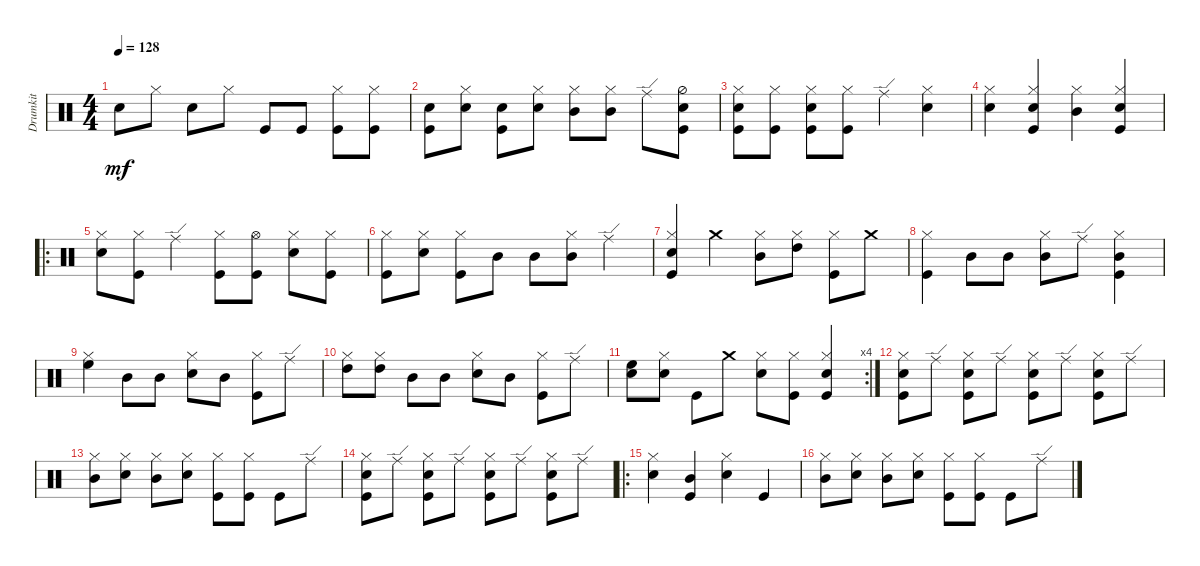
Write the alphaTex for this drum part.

\track ("Drumkit" "Drumkit") {instrument percussion}
\staff {score}
\articulation defaults
\ts (4 4)
\tempo 128
\clef neutral
\ks c "Snare (hit) 2".8{dy mf} "Hi-Hat (closed)".8 "Snare (hit) 2".8 "Hi-Hat (closed)".8 "Kick (hit)".8 "Kick (hit)".8
("Kick (hit)" "Hi-Hat (closed)").8 ("Kick (hit)" "Hi-Hat (closed)").8 |
("Snare (hit) 2" "Kick (hit)").8 ("Snare (hit) 2" "Hi-Hat (closed)").8 ("Kick (hit)" "Snare (hit) 2").8 ("Snare (hit) 2" "Hi-Hat (closed)").8 ("Mid Tom (hit)" "Hi-Hat (closed)").8 ("Mid Tom (hit)" "Hi-Hat (closed)").8 "Ride (edge)".8 ("Hi-Hat (half)" "Snare (hit) 2" "Kick (hit)").8 |
("Hi-Hat (closed)" "Kick (hit)" "Snare (hit) 2").8 ("Hi-Hat (closed)" "Kick (hit)").8 ("Hi-Hat (closed)" "Snare (hit) 2" "Kick (hit)").8 ("Hi-Hat (closed)" "Kick (hit)").8 "Ride (edge)".4 ("Snare (hit) 2" "Hi-Hat (closed)").4 |
("Hi-Hat (closed)" "Snare (hit) 2").4 ("Hi-Hat (closed)" "Snare (hit) 2" "Kick (hit)").4 ("Hi-Hat (closed)" "Mid Tom (hit)").4 ("Hi-Hat (closed)" "Snare (hit) 2" "Kick (hit)").4 |
\ro
("Snare (hit) 2" "Hi-Hat (closed)").8 ("Kick (hit)" "Hi-Hat (closed)").8 "Ride (edge)".4 ("Kick (hit)" "Hi-Hat (closed)").8 ("Kick (hit)" "Hi-Hat (open)").8 ("Snare (hit) 2" "Hi-Hat (closed)").8 ("Kick (hit)" "Hi-Hat (closed)").8 |
("Kick (hit)" "Hi-Hat (closed)").8 ("Snare (hit) 2" "Hi-Hat (closed)").8 ("Kick (hit)" "Hi-Hat (closed)").8 "Mid Tom (hit)".8 "Mid Tom (hit)".8 ("Mid Tom (hit)" "Hi-Hat (closed)").8 "Ride (edge)".4 |
("Snare (hit) 2" "Hi-Hat (closed)" "Kick (hit)").4 "Crash medium (hit)".4 ("Mid Tom (hit)" "Hi-Hat (closed)").8 ("High Tom (hit)" "Hi-Hat (closed)").8 ("Kick (hit)" "Hi-Hat (closed)").8 "Crash medium (hit)".8 |
("Kick (hit)" "Hi-Hat (closed)").4 "Mid Tom (hit)".8 "Mid Tom (hit)".8 ("Mid Tom (hit)" "Hi-Hat (closed)").8 "Ride (edge)".8 ("Hi-Hat (closed)" "Kick (hit)" "Mid Tom (hit)").4 |
("High Floor Tom (hit)" "Hi-Hat (closed)").4 "Mid Tom (hit)".8 "Mid Tom (hit)".8 ("Snare (hit) 2" "Hi-Hat (closed)").8 "Mid Tom (hit)".8 ("Kick (hit)" "Hi-Hat (closed)").8 "Ride (edge)".8 |
("High Tom (hit)" "Hi-Hat (closed)").8 ("High Tom (hit)" "Hi-Hat (closed)").8 "Mid Tom (hit)".8 "Mid Tom (hit)".8 ("Snare (hit) 2" "Hi-Hat (closed)").8 "Mid Tom (hit)".8 ("Kick (hit)" "Hi-Hat (closed)").8 "Ride (edge)".8 |
\rc 4
("Snare (hit) 2" "High Floor Tom (hit)").8 ("Hi-Hat (closed)" "Snare (hit) 2").8 "Kick (hit)".8 "Crash medium (hit)".8 ("Hi-Hat (closed)" "Snare (hit) 2").8 ("Hi-Hat (closed)" "Kick (hit)").8 ("Hi-Hat (closed)" "Snare (hit) 2" "Kick (hit)").4 |
("Hi-Hat (closed)" "Snare (hit) 2" "Kick (hit)").8 "Ride (edge)".8 ("Hi-Hat (closed)" "Snare (hit) 2" "Kick (hit)").8 "Ride (edge)".8 ("Hi-Hat (closed)" "Snare (hit) 2" "Kick (hit)").8 "Ride (edge)".8 ("Hi-Hat (closed)" "Snare (hit) 2" "Kick (hit)").8 "Ride (edge)".8 |
("Mid Tom (hit)" "Hi-Hat (closed)").8 ("Hi-Hat (closed)" "Snare (hit) 2").8 ("Hi-Hat (closed)" "Mid Tom (hit)").8 ("Hi-Hat (closed)" "Snare (hit) 2").8 ("Kick (hit)" "Hi-Hat (closed)").8 ("Kick (hit)" "Hi-Hat (closed)").8 "Kick (hit)".8 "Ride (edge)".8 |
("Hi-Hat (closed)" "Snare (hit) 2" "Kick (hit)").8 "Ride (edge)".8 ("Hi-Hat (closed)" "Snare (hit) 2" "Kick (hit)").8 "Ride (edge)".8 ("Hi-Hat (closed)" "Snare (hit) 2" "Kick (hit)").8 "Ride (edge)".8 ("Hi-Hat (closed)" "Snare (hit) 2" "Kick (hit)").8 "Ride (edge)".8 |
\ro
("Hi-Hat (closed)" "Snare (hit) 2").4 ("Kick (hit)" "Mid Tom (hit)").4 ("Snare (hit) 2" "Hi-Hat (closed)").4 "Kick (hit)".4 |
("Mid Tom (hit)" "Hi-Hat (closed)").8 ("Hi-Hat (closed)" "Snare (hit) 2").8 ("Hi-Hat (closed)" "Mid Tom (hit)").8 ("Hi-Hat (closed)" "Snare (hit) 2").8 ("Kick (hit)" "Hi-Hat (closed)").8 ("Kick (hit)" "Hi-Hat (closed)").8 "Kick (hit)".8 "Ride (edge)".8
